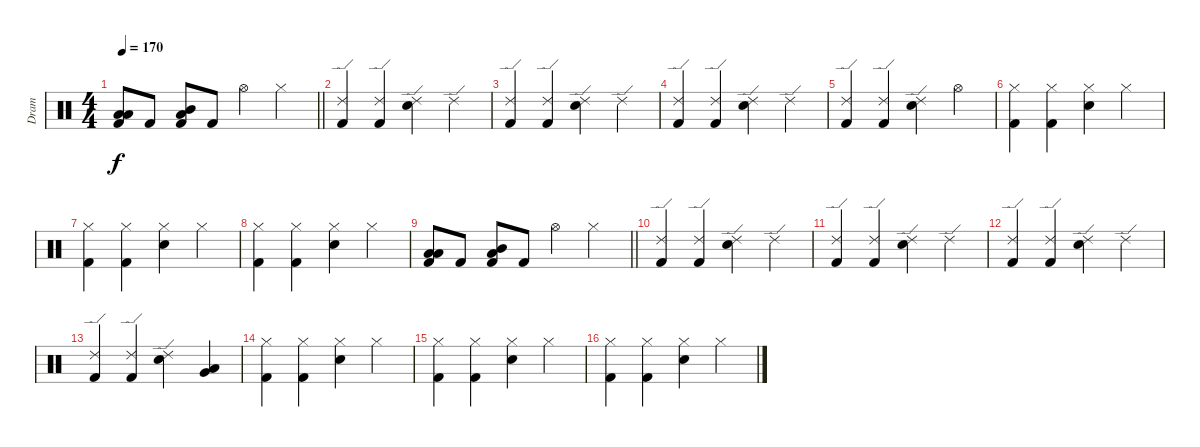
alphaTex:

\track ("Dram" "Dram") {instrument percussion}
\staff {score}
\articulation defaults
\ts (4 4)
\tempo 170
\clef neutral
\barLineRight lightlight
\ks c
("Low Floor Tom (hit)" "Low Tom (hit)" "Kick (hit) 2").8{dy f} "Kick (hit) 2".8 ("Low Tom (hit)" "Mid Tom (hit)" "Kick (hit) 2").8 "Kick (hit) 2".8 "Hi-Hat (open)".4 "Hi-Hat (closed)".4 |
("Ride (edge) 2" "Kick (hit) 2").4 ("Ride (edge) 2" "Kick (hit) 2").4 ("Ride (edge) 2" "Electric Snare (hit)").4 "Ride (edge) 2".4 |
("Ride (edge) 2" "Kick (hit) 2").4 ("Ride (edge) 2" "Kick (hit) 2").4 ("Ride (edge) 2" "Electric Snare (hit)").4 "Ride (edge) 2".4 |
("Ride (edge) 2" "Kick (hit) 2").4 ("Ride (edge) 2" "Kick (hit) 2").4 ("Ride (edge) 2" "Electric Snare (hit)").4 "Ride (edge) 2".4 |
("Ride (edge) 2" "Kick (hit) 2").4 ("Ride (edge) 2" "Kick (hit) 2").4 ("Ride (edge) 2" "Electric Snare (hit)").4 "Hi-Hat (open)".4 |
("Hi-Hat (closed)" "Kick (hit) 2").4 ("Hi-Hat (closed)" "Kick (hit) 2").4 ("Hi-Hat (closed)" "Electric Snare (hit)").4 "Hi-Hat (closed)".4 |
("Hi-Hat (closed)" "Kick (hit) 2").4 ("Hi-Hat (closed)" "Kick (hit) 2").4 ("Hi-Hat (closed)" "Electric Snare (hit)").4 "Hi-Hat (closed)".4 |
("Hi-Hat (closed)" "Kick (hit) 2").4 ("Hi-Hat (closed)" "Kick (hit) 2").4 ("Hi-Hat (closed)" "Electric Snare (hit)").4 "Hi-Hat (closed)".4 |
\barLineRight lightlight
("Low Floor Tom (hit)" "Low Tom (hit)" "Kick (hit) 2").8 "Kick (hit) 2".8 ("Low Tom (hit)" "Mid Tom (hit)" "Kick (hit) 2").8 "Kick (hit) 2".8 "Hi-Hat (open)".4 "Hi-Hat (closed)".4 |
("Ride (edge) 2" "Kick (hit) 2").4 ("Ride (edge) 2" "Kick (hit) 2").4 ("Ride (edge) 2" "Electric Snare (hit)").4 "Ride (edge) 2".4 |
("Ride (edge) 2" "Kick (hit) 2").4 ("Ride (edge) 2" "Kick (hit) 2").4 ("Ride (edge) 2" "Electric Snare (hit)").4 "Ride (edge) 2".4 |
("Ride (edge) 2" "Kick (hit) 2").4 ("Ride (edge) 2" "Kick (hit) 2").4 ("Ride (edge) 2" "Electric Snare (hit)").4 "Ride (edge) 2".4 |
("Ride (edge) 2" "Kick (hit) 2").4 ("Ride (edge) 2" "Kick (hit) 2").4 ("Ride (edge) 2" "Electric Snare (hit)").4 ("Low Tom (hit)" "Very Low Tom (hit)").4 |
("Hi-Hat (closed)" "Kick (hit) 2").4 ("Hi-Hat (closed)" "Kick (hit) 2").4 ("Hi-Hat (closed)" "Electric Snare (hit)").4 "Hi-Hat (closed)".4 |
("Hi-Hat (closed)" "Kick (hit) 2").4 ("Hi-Hat (closed)" "Kick (hit) 2").4 ("Hi-Hat (closed)" "Electric Snare (hit)").4 "Hi-Hat (closed)".4 |
("Hi-Hat (closed)" "Kick (hit) 2").4 ("Hi-Hat (closed)" "Kick (hit) 2").4 ("Hi-Hat (closed)" "Electric Snare (hit)").4 "Hi-Hat (closed)".4
